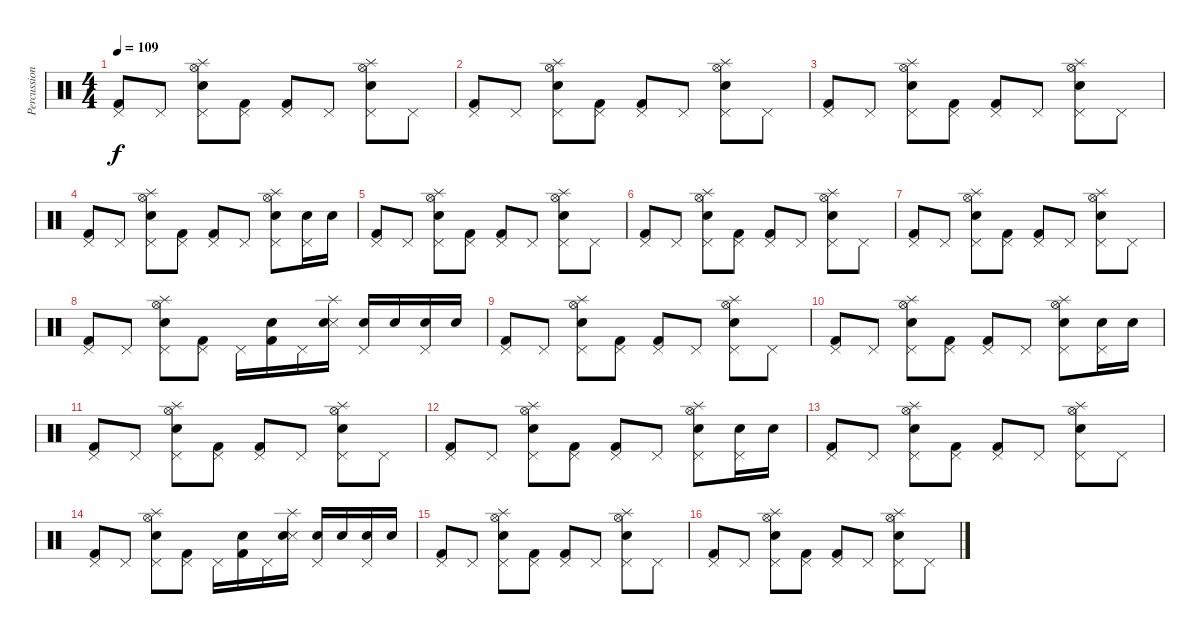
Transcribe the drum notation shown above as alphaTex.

\track ("Percussion" "Percussion") {instrument percussion}
\staff {score}
\articulation defaults
\ts (4 4)
\tempo 109
\clef neutral
\ks c
("Pedal Hi-Hat (hit)" "Kick (hit) 2").8{dy f} "Pedal Hi-Hat (hit)".8 ("Pedal Hi-Hat (hit)" "Splash (hit)" "Electric Snare (hit)" "Hi-Hat (open)").8 ("Pedal Hi-Hat (hit)" "Kick (hit) 2").8 ("Pedal Hi-Hat (hit)" "Kick (hit) 2").8 "Pedal Hi-Hat (hit)".8 ("Pedal Hi-Hat (hit)" "Splash (hit)" "Electric Snare (hit)" "Hi-Hat (open)").8 "Pedal Hi-Hat (hit)".8 |
("Pedal Hi-Hat (hit)" "Kick (hit) 2").8 "Pedal Hi-Hat (hit)".8 ("Pedal Hi-Hat (hit)" "Splash (hit)" "Electric Snare (hit)" "Hi-Hat (open)").8 ("Pedal Hi-Hat (hit)" "Kick (hit) 2").8 ("Pedal Hi-Hat (hit)" "Kick (hit) 2").8 "Pedal Hi-Hat (hit)".8 ("Pedal Hi-Hat (hit)" "Splash (hit)" "Electric Snare (hit)" "Hi-Hat (open)").8 "Pedal Hi-Hat (hit)".8 |
("Pedal Hi-Hat (hit)" "Kick (hit) 2").8 "Pedal Hi-Hat (hit)".8 ("Pedal Hi-Hat (hit)" "Splash (hit)" "Electric Snare (hit)" "Hi-Hat (open)").8 ("Pedal Hi-Hat (hit)" "Kick (hit) 2").8 ("Pedal Hi-Hat (hit)" "Kick (hit) 2").8 "Pedal Hi-Hat (hit)".8 ("Pedal Hi-Hat (hit)" "Splash (hit)" "Electric Snare (hit)" "Hi-Hat (open)").8 "Pedal Hi-Hat (hit)".8 |
("Pedal Hi-Hat (hit)" "Kick (hit) 2").8 "Pedal Hi-Hat (hit)".8 ("Pedal Hi-Hat (hit)" "Splash (hit)" "Electric Snare (hit)" "Hi-Hat (open)").8 ("Pedal Hi-Hat (hit)" "Kick (hit) 2").8 ("Pedal Hi-Hat (hit)" "Kick (hit) 2").8 "Pedal Hi-Hat (hit)".8 ("Pedal Hi-Hat (hit)" "Splash (hit)" "Electric Snare (hit)" "Hi-Hat (open)").8 ("Pedal Hi-Hat (hit)" "Electric Snare (hit)").16 "Electric Snare (hit)".16 |
("Pedal Hi-Hat (hit)" "Kick (hit) 2").8 "Pedal Hi-Hat (hit)".8 ("Pedal Hi-Hat (hit)" "Splash (hit)" "Electric Snare (hit)" "Hi-Hat (open)").8 ("Pedal Hi-Hat (hit)" "Kick (hit) 2").8 ("Pedal Hi-Hat (hit)" "Kick (hit) 2").8 "Pedal Hi-Hat (hit)".8 ("Pedal Hi-Hat (hit)" "Splash (hit)" "Electric Snare (hit)" "Hi-Hat (open)").8 "Pedal Hi-Hat (hit)".8 |
("Pedal Hi-Hat (hit)" "Kick (hit) 2").8 "Pedal Hi-Hat (hit)".8 ("Pedal Hi-Hat (hit)" "Splash (hit)" "Electric Snare (hit)" "Hi-Hat (open)").8 ("Pedal Hi-Hat (hit)" "Kick (hit) 2").8 ("Pedal Hi-Hat (hit)" "Kick (hit) 2").8 "Pedal Hi-Hat (hit)".8 ("Pedal Hi-Hat (hit)" "Splash (hit)" "Electric Snare (hit)" "Hi-Hat (open)").8 "Pedal Hi-Hat (hit)".8 |
("Pedal Hi-Hat (hit)" "Kick (hit) 2").8 "Pedal Hi-Hat (hit)".8 ("Pedal Hi-Hat (hit)" "Splash (hit)" "Electric Snare (hit)" "Hi-Hat (open)").8 ("Pedal Hi-Hat (hit)" "Kick (hit) 2").8 ("Pedal Hi-Hat (hit)" "Kick (hit) 2").8 "Pedal Hi-Hat (hit)".8 ("Pedal Hi-Hat (hit)" "Splash (hit)" "Electric Snare (hit)" "Hi-Hat (open)").8 "Pedal Hi-Hat (hit)".8 |
("Pedal Hi-Hat (hit)" "Kick (hit) 2").8 "Pedal Hi-Hat (hit)".8 ("Pedal Hi-Hat (hit)" "Splash (hit)" "Electric Snare (hit)" "Hi-Hat (open)").8 ("Pedal Hi-Hat (hit)" "Kick (hit) 2").8 "Pedal Hi-Hat (hit)".16 ("Electric Snare (hit)" "Kick (hit) 2").16 "Pedal Hi-Hat (hit)".16 ("Splash (hit)" "Snare (side stick) 3" "Electric Snare (hit)").16 ("Pedal Hi-Hat (hit)" "Electric Snare (hit)").16 "Electric Snare (hit)".16 ("Pedal Hi-Hat (hit)" "Electric Snare (hit)").16 "Electric Snare (hit)".16 |
("Pedal Hi-Hat (hit)" "Kick (hit) 2").8 "Pedal Hi-Hat (hit)".8 ("Pedal Hi-Hat (hit)" "Splash (hit)" "Electric Snare (hit)" "Hi-Hat (open)").8 ("Pedal Hi-Hat (hit)" "Kick (hit) 2").8 ("Pedal Hi-Hat (hit)" "Kick (hit) 2").8 "Pedal Hi-Hat (hit)".8 ("Pedal Hi-Hat (hit)" "Splash (hit)" "Electric Snare (hit)" "Hi-Hat (open)").8 "Pedal Hi-Hat (hit)".8 |
("Pedal Hi-Hat (hit)" "Kick (hit) 2").8 "Pedal Hi-Hat (hit)".8 ("Pedal Hi-Hat (hit)" "Splash (hit)" "Electric Snare (hit)" "Hi-Hat (open)").8 ("Pedal Hi-Hat (hit)" "Kick (hit) 2").8 ("Pedal Hi-Hat (hit)" "Kick (hit) 2").8 "Pedal Hi-Hat (hit)".8 ("Pedal Hi-Hat (hit)" "Splash (hit)" "Electric Snare (hit)" "Hi-Hat (open)").8 ("Pedal Hi-Hat (hit)" "Electric Snare (hit)").16 "Electric Snare (hit)".16 |
("Pedal Hi-Hat (hit)" "Kick (hit) 2").8 "Pedal Hi-Hat (hit)".8 ("Pedal Hi-Hat (hit)" "Splash (hit)" "Electric Snare (hit)" "Hi-Hat (open)").8 ("Pedal Hi-Hat (hit)" "Kick (hit) 2").8 ("Pedal Hi-Hat (hit)" "Kick (hit) 2").8 "Pedal Hi-Hat (hit)".8 ("Pedal Hi-Hat (hit)" "Splash (hit)" "Electric Snare (hit)" "Hi-Hat (open)").8 "Pedal Hi-Hat (hit)".8 |
("Pedal Hi-Hat (hit)" "Kick (hit) 2").8 "Pedal Hi-Hat (hit)".8 ("Pedal Hi-Hat (hit)" "Splash (hit)" "Electric Snare (hit)" "Hi-Hat (open)").8 ("Pedal Hi-Hat (hit)" "Kick (hit) 2").8 ("Pedal Hi-Hat (hit)" "Kick (hit) 2").8 "Pedal Hi-Hat (hit)".8 ("Pedal Hi-Hat (hit)" "Splash (hit)" "Electric Snare (hit)" "Hi-Hat (open)").8 ("Pedal Hi-Hat (hit)" "Electric Snare (hit)").16 "Electric Snare (hit)".16 |
("Pedal Hi-Hat (hit)" "Kick (hit) 2").8 "Pedal Hi-Hat (hit)".8 ("Pedal Hi-Hat (hit)" "Splash (hit)" "Electric Snare (hit)" "Hi-Hat (open)").8 ("Pedal Hi-Hat (hit)" "Kick (hit) 2").8 ("Pedal Hi-Hat (hit)" "Kick (hit) 2").8 "Pedal Hi-Hat (hit)".8 ("Pedal Hi-Hat (hit)" "Splash (hit)" "Electric Snare (hit)" "Hi-Hat (open)").8 "Pedal Hi-Hat (hit)".8 |
("Pedal Hi-Hat (hit)" "Kick (hit) 2").8 "Pedal Hi-Hat (hit)".8 ("Pedal Hi-Hat (hit)" "Splash (hit)" "Electric Snare (hit)" "Hi-Hat (open)").8 ("Pedal Hi-Hat (hit)" "Kick (hit) 2").8 "Pedal Hi-Hat (hit)".16 ("Electric Snare (hit)" "Kick (hit) 2").16 "Pedal Hi-Hat (hit)".16 ("Splash (hit)" "Snare (side stick) 3" "Electric Snare (hit)").16 ("Pedal Hi-Hat (hit)" "Electric Snare (hit)").16 "Electric Snare (hit)".16 ("Pedal Hi-Hat (hit)" "Electric Snare (hit)").16 "Electric Snare (hit)".16 |
("Pedal Hi-Hat (hit)" "Kick (hit) 2").8 "Pedal Hi-Hat (hit)".8 ("Pedal Hi-Hat (hit)" "Splash (hit)" "Electric Snare (hit)" "Hi-Hat (open)").8 ("Pedal Hi-Hat (hit)" "Kick (hit) 2").8 ("Pedal Hi-Hat (hit)" "Kick (hit) 2").8 "Pedal Hi-Hat (hit)".8 ("Pedal Hi-Hat (hit)" "Splash (hit)" "Electric Snare (hit)" "Hi-Hat (open)").8 "Pedal Hi-Hat (hit)".8 |
("Pedal Hi-Hat (hit)" "Kick (hit) 2").8 "Pedal Hi-Hat (hit)".8 ("Pedal Hi-Hat (hit)" "Splash (hit)" "Electric Snare (hit)" "Hi-Hat (open)").8 ("Pedal Hi-Hat (hit)" "Kick (hit) 2").8 ("Pedal Hi-Hat (hit)" "Kick (hit) 2").8 "Pedal Hi-Hat (hit)".8 ("Pedal Hi-Hat (hit)" "Splash (hit)" "Electric Snare (hit)" "Hi-Hat (open)").8 "Pedal Hi-Hat (hit)".8
